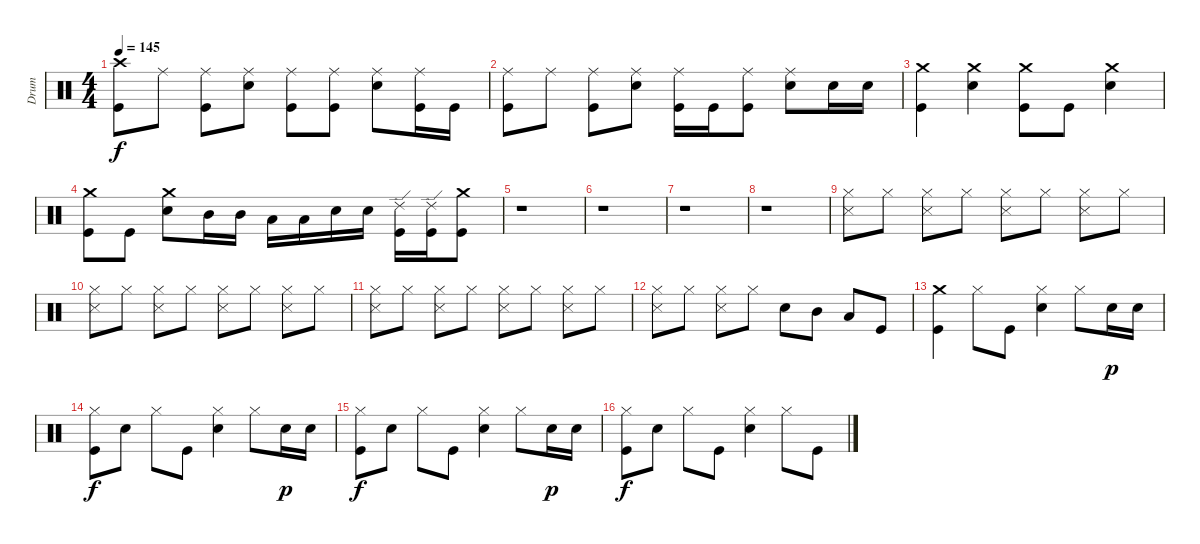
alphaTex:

\track ("Drum" "Drum") {instrument percussion}
\staff {score}
\articulation defaults
\ts (4 4)
\tempo 145
\clef neutral
\ks c
("Kick (hit)" "Crash high (hit)").8{dy f} "Ride (middle)".8 ("Kick (hit)" "Ride (middle)").8 ("Electric Snare (hit)" "Ride (middle)").8 ("Kick (hit)" "Ride (middle)").8 ("Kick (hit)" "Ride (middle)").8 ("Electric Snare (hit)" "Ride (middle)").8 ("Kick (hit)" "Ride (middle)").16 "Kick (hit)".16 |
("Kick (hit)" "Ride (middle)").8 "Ride (middle)".8 ("Kick (hit)" "Ride (middle)").8 ("Electric Snare (hit)" "Ride (middle)").8 ("Kick (hit)" "Ride (middle)").16 "Kick (hit)".16 ("Kick (hit)" "Ride (middle)").8 ("Electric Snare (hit)" "Ride (middle)").8 "Electric Snare (hit)".16 "Electric Snare (hit)".16 |
("Kick (hit)" "Crash medium (hit)").4 ("Electric Snare (hit)" "Crash medium (hit)").4 ("Kick (hit)" "Crash medium (hit)").8 "Kick (hit)".8 ("Electric Snare (hit)" "Crash medium (hit)").4 |
("Kick (hit)" "Crash medium (hit)").8 "Kick (hit)".8 ("Electric Snare (hit)" "Crash medium (hit)").8 "Mid Tom (hit)".16 "Mid Tom (hit)".16 "Low Tom (hit)".16 "Low Tom (hit)".16 "Electric Snare (hit)".16 "Electric Snare (hit)".16 ("Kick (hit)" "Ride (edge) 2").16 ("Kick (hit)" "Ride (edge) 2").16 ("Kick (hit)" "Crash medium (hit)").8 |
r.1 |
r.1 |
r.1 |
r.1 |
("Snare (side stick) 3" "Hi-Hat (closed)").8 "Hi-Hat (closed)".8 ("Snare (side stick) 3" "Hi-Hat (closed)").8 "Hi-Hat (closed)".8 ("Snare (side stick) 3" "Hi-Hat (closed)").8 "Hi-Hat (closed)".8 ("Snare (side stick) 3" "Hi-Hat (closed)").8 "Hi-Hat (closed)".8 |
("Snare (side stick) 3" "Hi-Hat (closed)").8 "Hi-Hat (closed)".8 ("Snare (side stick) 3" "Hi-Hat (closed)").8 "Hi-Hat (closed)".8 ("Snare (side stick) 3" "Hi-Hat (closed)").8 "Hi-Hat (closed)".8 ("Snare (side stick) 3" "Hi-Hat (closed)").8 "Hi-Hat (closed)".8 |
("Snare (side stick) 3" "Hi-Hat (closed)").8 "Hi-Hat (closed)".8 ("Snare (side stick) 3" "Hi-Hat (closed)").8 "Hi-Hat (closed)".8 ("Snare (side stick) 3" "Hi-Hat (closed)").8 "Hi-Hat (closed)".8 ("Snare (side stick) 3" "Hi-Hat (closed)").8 "Hi-Hat (closed)".8 |
("Snare (side stick) 3" "Hi-Hat (closed)").8 "Hi-Hat (closed)".8 ("Snare (side stick) 3" "Hi-Hat (closed)").8 "Hi-Hat (closed)".8 "Electric Snare (hit)".8 "Mid Tom (hit)".8 "Low Tom (hit)".8 "Kick (hit)".8 |
("Kick (hit)" "Crash medium (hit)").4 "Hi-Hat (closed)".8 "Kick (hit)".8 ("Electric Snare (hit)" "Hi-Hat (closed)").4 "Hi-Hat (closed)".8 "Electric Snare (hit)".16{dy p} "Electric Snare (hit)".16 |
("Kick (hit)" "Hi-Hat (closed)").8{dy f} "Electric Snare (hit)".8 "Hi-Hat (closed)".8 "Kick (hit)".8 ("Electric Snare (hit)" "Hi-Hat (closed)").4 "Hi-Hat (closed)".8 "Electric Snare (hit)".16{dy p} "Electric Snare (hit)".16 |
("Kick (hit)" "Hi-Hat (closed)").8{dy f} "Electric Snare (hit)".8 "Hi-Hat (closed)".8 "Kick (hit)".8 ("Electric Snare (hit)" "Hi-Hat (closed)").4 "Hi-Hat (closed)".8 "Electric Snare (hit)".16{dy p} "Electric Snare (hit)".16 |
("Kick (hit)" "Hi-Hat (closed)").8{dy f} "Electric Snare (hit)".8 "Hi-Hat (closed)".8 "Kick (hit)".8 ("Electric Snare (hit)" "Hi-Hat (closed)").4 "Hi-Hat (closed)".8 "Kick (hit)".8
